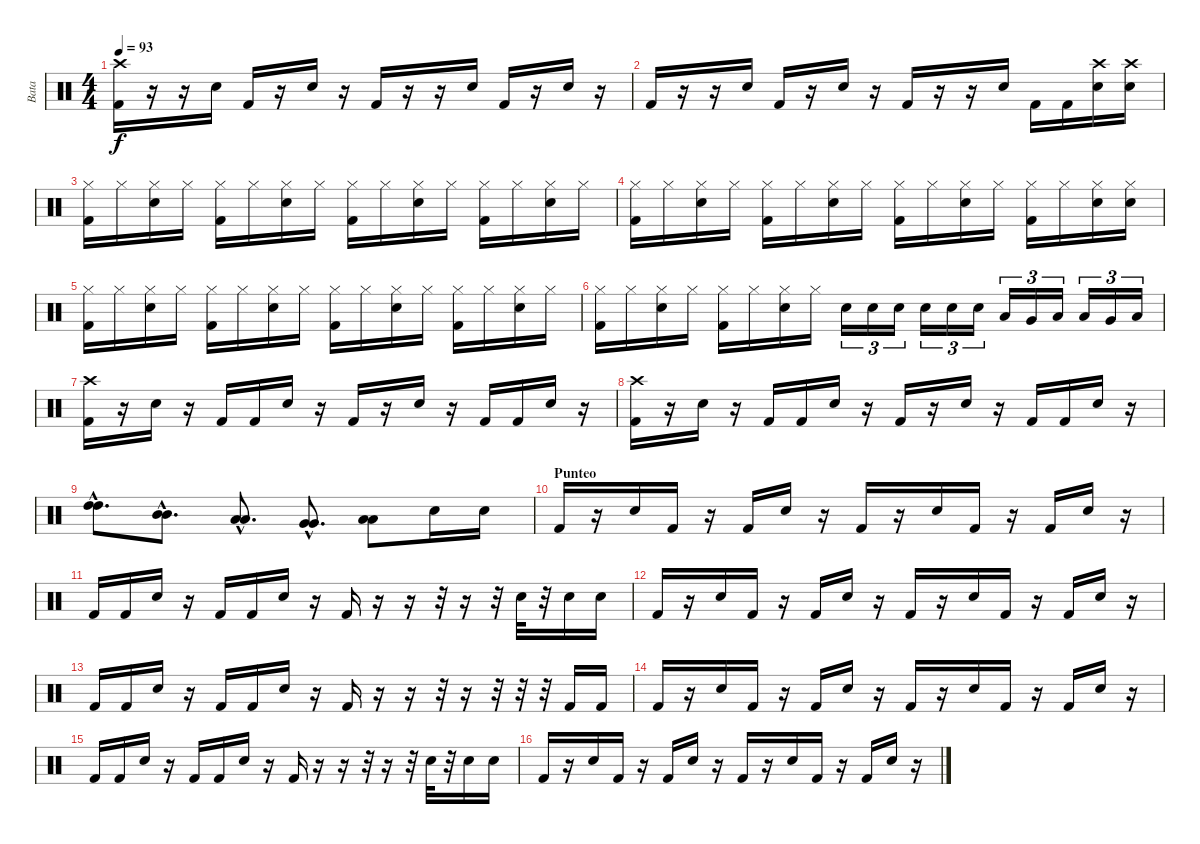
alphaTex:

\track ("Bata" "Bata") {instrument percussion}
\staff {score}
\articulation defaults
\ts (4 4)
\tempo 93
\clef neutral
\ks c
("Kick (hit) 2" "Crash high (hit)").16{dy f} r.16 r.16 "Snare (hit) 2".16 "Kick (hit) 2".16 r.16 "Snare (hit) 2".16 r.16 "Kick (hit) 2".16 r.16 r.16 "Snare (hit) 2".16 "Kick (hit) 2".16 r.16 "Snare (hit) 2".16 r.16 |
"Kick (hit) 2".16 r.16 r.16 "Snare (hit) 2".16 "Kick (hit) 2".16 r.16 "Snare (hit) 2".16 r.16 "Kick (hit) 2".16 r.16 r.16 "Snare (hit) 2".16 "Kick (hit) 2".16 "Kick (hit) 2".16 ("Crash high (hit)" "Snare (hit) 2").16 ("Crash high (hit)" "Snare (hit) 2").16 |
("Hi-Hat (closed)" "Kick (hit) 2").16 "Hi-Hat (closed)".16 ("Hi-Hat (closed)" "Snare (hit) 2").16 "Hi-Hat (closed)".16 ("Hi-Hat (closed)" "Kick (hit) 2").16 "Hi-Hat (closed)".16 ("Hi-Hat (closed)" "Snare (hit) 2").16 "Hi-Hat (closed)".16 ("Hi-Hat (closed)" "Kick (hit) 2").16 "Hi-Hat (closed)".16 ("Hi-Hat (closed)" "Snare (hit) 2").16 "Hi-Hat (closed)".16 ("Hi-Hat (closed)" "Kick (hit) 2").16 "Hi-Hat (closed)".16 ("Hi-Hat (closed)" "Snare (hit) 2").16 "Hi-Hat (closed)".16 |
("Hi-Hat (closed)" "Kick (hit) 2").16 "Hi-Hat (closed)".16 ("Hi-Hat (closed)" "Snare (hit) 2").16 "Hi-Hat (closed)".16 ("Hi-Hat (closed)" "Kick (hit) 2").16 "Hi-Hat (closed)".16 ("Hi-Hat (closed)" "Snare (hit) 2").16 "Hi-Hat (closed)".16 ("Hi-Hat (closed)" "Kick (hit) 2").16 "Hi-Hat (closed)".16 ("Hi-Hat (closed)" "Snare (hit) 2").16 "Hi-Hat (closed)".16 ("Hi-Hat (closed)" "Kick (hit) 2").16 "Hi-Hat (closed)".16 ("Hi-Hat (closed)" "Snare (hit) 2").16 ("Hi-Hat (closed)" "Snare (hit) 2").16 |
("Hi-Hat (closed)" "Kick (hit) 2").16 "Hi-Hat (closed)".16 ("Hi-Hat (closed)" "Snare (hit) 2").16 "Hi-Hat (closed)".16 ("Hi-Hat (closed)" "Kick (hit) 2").16 "Hi-Hat (closed)".16 ("Hi-Hat (closed)" "Snare (hit) 2").16 "Hi-Hat (closed)".16 ("Hi-Hat (closed)" "Kick (hit) 2").16 "Hi-Hat (closed)".16 ("Hi-Hat (closed)" "Snare (hit) 2").16 "Hi-Hat (closed)".16 ("Hi-Hat (closed)" "Kick (hit) 2").16 "Hi-Hat (closed)".16 ("Hi-Hat (closed)" "Snare (hit) 2").16 "Hi-Hat (closed)".16 |
("Hi-Hat (closed)" "Kick (hit) 2").16 "Hi-Hat (closed)".16 ("Hi-Hat (closed)" "Snare (hit) 2").16 "Hi-Hat (closed)".16 ("Hi-Hat (closed)" "Kick (hit) 2").16 "Hi-Hat (closed)".16 ("Hi-Hat (closed)" "Snare (hit) 2").16 "Hi-Hat (closed)".16 "Snare (hit) 2".16{tu (3 2)} "Snare (hit) 2".16{tu (3 2)} "Snare (hit) 2".16{tu (3 2)} "Snare (hit) 2".16{tu (3 2)} "Snare (hit) 2".16{tu (3 2)} "Snare (hit) 2".16{tu (3 2)} "Low Tom (hit)".16{tu (3 2)} "Very Low Tom (hit)".16{tu (3 2)} "Low Floor Tom (hit)".16{tu (3 2)} "Low Tom (hit)".16{tu (3 2)} "Very Low Tom (hit)".16{tu (3 2)} "Low Floor Tom (hit)".16{tu (3 2)} |
("Crash high (hit)" "Kick (hit) 2").16 r.16 "Snare (hit) 2".16 r.16 "Kick (hit) 2".16 "Kick (hit) 2".16 "Snare (hit) 2".16 r.16 "Kick (hit) 2".16 r.16 "Snare (hit) 2".16 r.16 "Kick (hit) 2".16 "Kick (hit) 2".16 "Snare (hit) 2".16 r.16 |
("Crash high (hit)" "Kick (hit) 2").16 r.16 "Snare (hit) 2".16 r.16 "Kick (hit) 2".16 "Kick (hit) 2".16 "Snare (hit) 2".16 r.16 "Kick (hit) 2".16 r.16 "Snare (hit) 2".16 r.16 "Kick (hit) 2".16 "Kick (hit) 2".16 "Snare (hit) 2".16 r.16 |
("High Tom (hit)"{hac} "High Tom (hit)"{hac}).8{d} ("Mid Tom (hit)"{hac} "Mid Tom (hit)"{hac}).8{d} ("Low Tom (hit)"{hac} "Low Tom (hit)"{hac}).8{d} ("Very Low Tom (hit)"{hac} "Very Low Tom (hit)"{hac}).8{d} ("Low Floor Tom (hit)" "Low Floor Tom (hit)").8 "Snare (hit) 2".16 "Snare (hit) 2".16 |
\section ("" "Punteo")
"Kick (hit) 2".16 r.16 "Snare (hit) 2".16 "Kick (hit) 2".16 r.16 "Kick (hit) 2".16 "Snare (hit) 2".16 r.16 "Kick (hit) 2".16 r.16 "Snare (hit) 2".16 "Kick (hit) 2".16 r.16 "Kick (hit) 2".16 "Snare (hit) 2".16 r.16 |
"Kick (hit) 2".16 "Kick (hit) 2".16 "Snare (hit) 2".16 r.16 "Kick (hit) 2".16 "Kick (hit) 2".16 "Snare (hit) 2".16 r.16 "Kick (hit) 2".16 r.16 r.16 r.32 r.16 r.32 "Snare (hit) 2".32 r.32 "Snare (hit) 2".16 "Snare (hit) 2".16 |
"Kick (hit) 2".16 r.16 "Snare (hit) 2".16 "Kick (hit) 2".16 r.16 "Kick (hit) 2".16 "Snare (hit) 2".16 r.16 "Kick (hit) 2".16 r.16 "Snare (hit) 2".16 "Kick (hit) 2".16 r.16 "Kick (hit) 2".16 "Snare (hit) 2".16 r.16 |
"Kick (hit) 2".16 "Kick (hit) 2".16 "Snare (hit) 2".16 r.16 "Kick (hit) 2".16 "Kick (hit) 2".16 "Snare (hit) 2".16 r.16 "Kick (hit) 2".16 r.16 r.16 r.32 r.16 r.32 r.32 r.32 "Kick (hit) 2".16 "Kick (hit) 2".16 |
"Kick (hit) 2".16 r.16 "Snare (hit) 2".16 "Kick (hit) 2".16 r.16 "Kick (hit) 2".16 "Snare (hit) 2".16 r.16 "Kick (hit) 2".16 r.16 "Snare (hit) 2".16 "Kick (hit) 2".16 r.16 "Kick (hit) 2".16 "Snare (hit) 2".16 r.16 |
"Kick (hit) 2".16 "Kick (hit) 2".16 "Snare (hit) 2".16 r.16 "Kick (hit) 2".16 "Kick (hit) 2".16 "Snare (hit) 2".16 r.16 "Kick (hit) 2".16 r.16 r.16 r.32 r.16 r.32 "Snare (hit) 2".32 r.32 "Snare (hit) 2".16 "Snare (hit) 2".16 |
"Kick (hit) 2".16 r.16 "Snare (hit) 2".16 "Kick (hit) 2".16 r.16 "Kick (hit) 2".16 "Snare (hit) 2".16 r.16 "Kick (hit) 2".16 r.16 "Snare (hit) 2".16 "Kick (hit) 2".16 r.16 "Kick (hit) 2".16 "Snare (hit) 2".16 r.16
